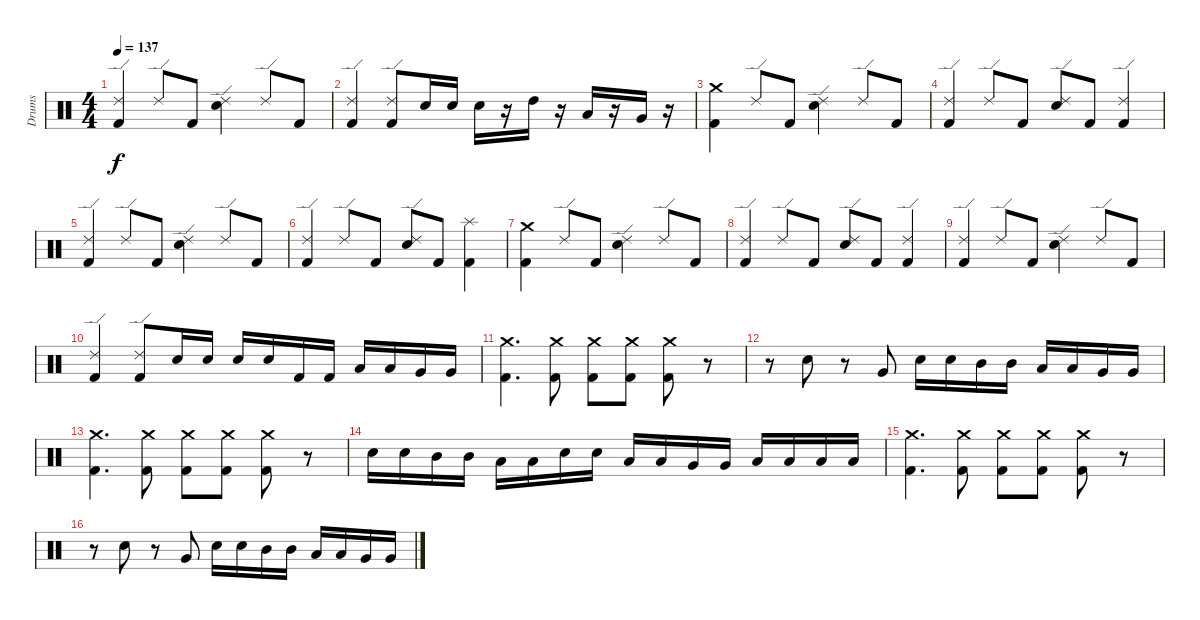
\track ("Drums" "Drums") {instrument percussion}
\staff {score}
\articulation defaults
\ts (4 4)
\tempo 137
\clef neutral
\ks c
("Ride (edge) 2" "Kick (hit) 2").4{dy f} "Ride (edge) 2".8 "Kick (hit) 2".8 ("Ride (edge) 2" "Electric Snare (hit)").4 "Ride (edge) 2".8 "Kick (hit) 2".8 |
("Ride (edge) 2" "Kick (hit) 2").4 ("Ride (edge) 2" "Kick (hit) 2").8 "Electric Snare (hit)".16 "Electric Snare (hit)".16 "Electric Snare (hit)".16 r.16 "High Tom (hit)".16 r.16 "Low Tom (hit)".16 r.16 "Very Low Tom (hit)".16 r.16 |
("Kick (hit) 2" "Crash medium (hit)").4 "Ride (edge) 2".8 "Kick (hit) 2".8 ("Ride (edge) 2" "Electric Snare (hit)").4 "Ride (edge) 2".8 "Kick (hit) 2".8 |
("Ride (edge) 2" "Kick (hit) 2").4 "Ride (edge) 2".8 "Kick (hit) 2".8 ("Ride (edge) 2" "Electric Snare (hit)").8 "Kick (hit) 2".8 ("Ride (edge) 2" "Kick (hit) 2").4 |
("Ride (edge) 2" "Kick (hit) 2").4 "Ride (edge) 2".8 "Kick (hit) 2".8 ("Ride (edge) 2" "Electric Snare (hit)").4 "Ride (edge) 2".8 "Kick (hit) 2".8 |
("Ride (edge) 2" "Kick (hit) 2").4 "Ride (edge) 2".8 "Kick (hit) 2".8 ("Ride (edge) 2" "Electric Snare (hit)").8 "Kick (hit) 2".8 ("Splash (hit)" "Kick (hit) 2").4 |
("Kick (hit) 2" "Crash medium (hit)").4 "Ride (edge) 2".8 "Kick (hit) 2".8 ("Ride (edge) 2" "Electric Snare (hit)").4 "Ride (edge) 2".8 "Kick (hit) 2".8 |
("Ride (edge) 2" "Kick (hit) 2").4 "Ride (edge) 2".8 "Kick (hit) 2".8 ("Ride (edge) 2" "Electric Snare (hit)").8 "Kick (hit) 2".8 ("Ride (edge) 2" "Kick (hit) 2").4 |
("Ride (edge) 2" "Kick (hit) 2").4 "Ride (edge) 2".8 "Kick (hit) 2".8 ("Ride (edge) 2" "Electric Snare (hit)").4 "Ride (edge) 2".8 "Kick (hit) 2".8 |
("Ride (edge) 2" "Kick (hit) 2").4 ("Ride (edge) 2" "Kick (hit) 2").8 "Electric Snare (hit)".16 "Electric Snare (hit)".16 "Electric Snare (hit)".16 "Electric Snare (hit)".16 "Kick (hit) 2".16 "Kick (hit) 2".16 "Low Tom (hit)".16 "Low Tom (hit)".16 "Very Low Tom (hit)".16 "Very Low Tom (hit)".16 |
("Crash medium (hit)" "Kick (hit) 2").4{d} ("Crash medium (hit)" "Kick (hit) 2").8 ("Crash medium (hit)" "Kick (hit) 2").8 ("Crash medium (hit)" "Kick (hit) 2").8 ("Crash medium (hit)" "Kick (hit) 2").8 r.8 |
r.8 "Electric Snare (hit)".8 r.8 "Very Low Tom (hit)".8 "Electric Snare (hit)".16 "Electric Snare (hit)".16 "Mid Tom (hit)".16 "Mid Tom (hit)".16 "Low Tom (hit)".16 "Low Tom (hit)".16 "Very Low Tom (hit)".16 "Very Low Tom (hit)".16 |
("Crash medium (hit)" "Kick (hit) 2").4{d} ("Crash medium (hit)" "Kick (hit) 2").8 ("Crash medium (hit)" "Kick (hit) 2").8 ("Crash medium (hit)" "Kick (hit) 2").8 ("Crash medium (hit)" "Kick (hit) 2").8 r.8 |
"Electric Snare (hit)".16 "Electric Snare (hit)".16 "Mid Tom (hit)".16 "Mid Tom (hit)".16 "Low Tom (hit)".16 "Low Tom (hit)".16 "Electric Snare (hit)".16 "Electric Snare (hit)".16 "Low Tom (hit)".16 "Low Tom (hit)".16 "Very Low Tom (hit)".16 "Very Low Tom (hit)".16 "Low Floor Tom (hit)".16 "Low Floor Tom (hit)".16 "Low Floor Tom (hit)".16 "Low Floor Tom (hit)".16 |
("Crash medium (hit)" "Kick (hit) 2").4{d} ("Crash medium (hit)" "Kick (hit) 2").8 ("Crash medium (hit)" "Kick (hit) 2").8 ("Crash medium (hit)" "Kick (hit) 2").8 ("Crash medium (hit)" "Kick (hit) 2").8 r.8 |
r.8 "Electric Snare (hit)".8 r.8 "Very Low Tom (hit)".8 "Electric Snare (hit)".16 "Electric Snare (hit)".16 "Mid Tom (hit)".16 "Mid Tom (hit)".16 "Low Tom (hit)".16 "Low Tom (hit)".16 "Very Low Tom (hit)".16 "Very Low Tom (hit)".16
